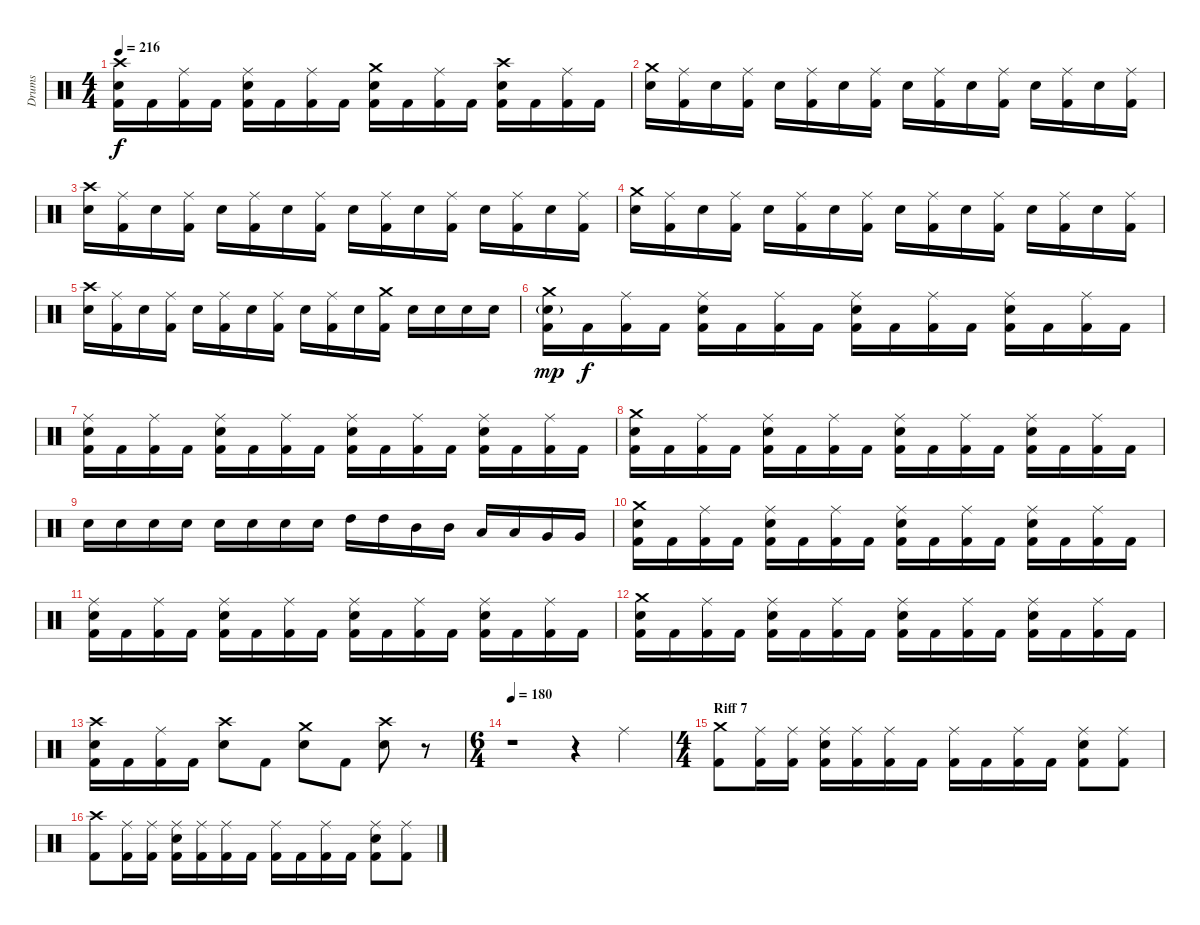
\track ("Drums" "Drums") {instrument percussion}
\staff {score}
\articulation defaults
\ts (4 4)
\tempo 216
\clef neutral
\ks c
("Crash high (hit)" "Electric Snare (hit)" "Kick (hit) 2").16{dy f} "Kick (hit) 2".16 ("Ride (middle)" "Kick (hit) 2").16 "Kick (hit) 2".16 ("Ride (middle)" "Electric Snare (hit)" "Kick (hit) 2").16 "Kick (hit) 2".16 ("Ride (middle)" "Kick (hit) 2").16 "Kick (hit) 2".16 ("Crash medium (hit)" "Electric Snare (hit)" "Kick (hit) 2").16 "Kick (hit) 2".16 ("Ride (middle)" "Kick (hit) 2").16 "Kick (hit) 2".16 ("Crash high (hit)" "Electric Snare (hit)" "Kick (hit) 2").16 "Kick (hit) 2".16 ("Ride (middle)" "Kick (hit) 2").16 "Kick (hit) 2".16 |
("Crash medium (hit)" "Electric Snare (hit)").16 ("Ride (middle)" "Kick (hit) 2").16 "Electric Snare (hit)".16 ("Ride (middle)" "Kick (hit) 2").16 "Electric Snare (hit)".16 ("Ride (middle)" "Kick (hit) 2").16 "Electric Snare (hit)".16 ("Ride (middle)" "Kick (hit) 2").16 "Electric Snare (hit)".16 ("Ride (middle)" "Kick (hit) 2").16 "Electric Snare (hit)".16 ("Ride (middle)" "Kick (hit) 2").16 "Electric Snare (hit)".16 ("Ride (middle)" "Kick (hit) 2").16 "Electric Snare (hit)".16 ("Ride (middle)" "Kick (hit) 2").16 |
("Crash high (hit)" "Electric Snare (hit)").16 ("Ride (middle)" "Kick (hit) 2").16 "Electric Snare (hit)".16 ("Ride (middle)" "Kick (hit) 2").16 "Electric Snare (hit)".16 ("Ride (middle)" "Kick (hit) 2").16 "Electric Snare (hit)".16 ("Ride (middle)" "Kick (hit) 2").16 "Electric Snare (hit)".16 ("Ride (middle)" "Kick (hit) 2").16 "Electric Snare (hit)".16 ("Ride (middle)" "Kick (hit) 2").16 "Electric Snare (hit)".16 ("Ride (middle)" "Kick (hit) 2").16 "Electric Snare (hit)".16 ("Ride (middle)" "Kick (hit) 2").16 |
("Crash medium (hit)" "Electric Snare (hit)").16 ("Ride (middle)" "Kick (hit) 2").16 "Electric Snare (hit)".16 ("Ride (middle)" "Kick (hit) 2").16 "Electric Snare (hit)".16 ("Ride (middle)" "Kick (hit) 2").16 "Electric Snare (hit)".16 ("Ride (middle)" "Kick (hit) 2").16 "Electric Snare (hit)".16 ("Ride (middle)" "Kick (hit) 2").16 "Electric Snare (hit)".16 ("Ride (middle)" "Kick (hit) 2").16 "Electric Snare (hit)".16 ("Ride (middle)" "Kick (hit) 2").16 "Electric Snare (hit)".16 ("Ride (middle)" "Kick (hit) 2").16 |
("Crash high (hit)" "Electric Snare (hit)").16 ("Ride (middle)" "Kick (hit) 2").16 "Electric Snare (hit)".16 ("Ride (middle)" "Kick (hit) 2").16 "Electric Snare (hit)".16 ("Ride (middle)" "Kick (hit) 2").16 "Electric Snare (hit)".16 ("Ride (middle)" "Kick (hit) 2").16 "Electric Snare (hit)".16 ("Ride (middle)" "Kick (hit) 2").16 "Electric Snare (hit)".16 ("Crash medium (hit)" "Kick (hit) 2").16 "Electric Snare (hit)".16 "Electric Snare (hit)".16 "Electric Snare (hit)".16 "Electric Snare (hit)".16 |
("Crash medium (hit)" "Electric Snare (hit)"{g} "Kick (hit) 2").16{dy mp} "Kick (hit) 2".16{dy f} ("Ride (middle)" "Kick (hit) 2").16 "Kick (hit) 2".16 ("Ride (middle)" "Electric Snare (hit)" "Kick (hit) 2").16 "Kick (hit) 2".16 ("Ride (middle)" "Kick (hit) 2").16 "Kick (hit) 2".16 ("Ride (middle)" "Electric Snare (hit)" "Kick (hit) 2").16 "Kick (hit) 2".16 ("Ride (middle)" "Kick (hit) 2").16 "Kick (hit) 2".16 ("Ride (middle)" "Electric Snare (hit)" "Kick (hit) 2").16 "Kick (hit) 2".16 ("Ride (middle)" "Kick (hit) 2").16 "Kick (hit) 2".16 |
("Ride (middle)" "Electric Snare (hit)" "Kick (hit) 2").16 "Kick (hit) 2".16 ("Ride (middle)" "Kick (hit) 2").16 "Kick (hit) 2".16 ("Ride (middle)" "Electric Snare (hit)" "Kick (hit) 2").16 "Kick (hit) 2".16 ("Ride (middle)" "Kick (hit) 2").16 "Kick (hit) 2".16 ("Ride (middle)" "Electric Snare (hit)" "Kick (hit) 2").16 "Kick (hit) 2".16 ("Ride (middle)" "Kick (hit) 2").16 "Kick (hit) 2".16 ("Ride (middle)" "Electric Snare (hit)" "Kick (hit) 2").16 "Kick (hit) 2".16 ("Ride (middle)" "Kick (hit) 2").16 "Kick (hit) 2".16 |
("Crash medium (hit)" "Electric Snare (hit)" "Kick (hit) 2").16 "Kick (hit) 2".16 ("Ride (middle)" "Kick (hit) 2").16 "Kick (hit) 2".16 ("Ride (middle)" "Electric Snare (hit)" "Kick (hit) 2").16 "Kick (hit) 2".16 ("Ride (middle)" "Kick (hit) 2").16 "Kick (hit) 2".16 ("Ride (middle)" "Electric Snare (hit)" "Kick (hit) 2").16 "Kick (hit) 2".16 ("Ride (middle)" "Kick (hit) 2").16 "Kick (hit) 2".16 ("Ride (middle)" "Electric Snare (hit)" "Kick (hit) 2").16 "Kick (hit) 2".16 ("Ride (middle)" "Kick (hit) 2").16 "Kick (hit) 2".16 |
"Electric Snare (hit)".16 "Electric Snare (hit)".16 "Electric Snare (hit)".16 "Electric Snare (hit)".16 "Electric Snare (hit)".16 "Electric Snare (hit)".16 "Electric Snare (hit)".16 "Electric Snare (hit)".16 "High Tom (hit)".16 "High Tom (hit)".16 "Mid Tom (hit)".16 "Mid Tom (hit)".16 "Low Tom (hit)".16 "Low Tom (hit)".16 "Very Low Tom (hit)".16 "Very Low Tom (hit)".16 |
("Crash medium (hit)" "Electric Snare (hit)" "Kick (hit) 2").16 "Kick (hit) 2".16 ("Ride (middle)" "Kick (hit) 2").16 "Kick (hit) 2".16 ("Ride (middle)" "Electric Snare (hit)" "Kick (hit) 2").16 "Kick (hit) 2".16 ("Ride (middle)" "Kick (hit) 2").16 "Kick (hit) 2".16 ("Ride (middle)" "Electric Snare (hit)" "Kick (hit) 2").16 "Kick (hit) 2".16 ("Ride (middle)" "Kick (hit) 2").16 "Kick (hit) 2".16 ("Ride (middle)" "Electric Snare (hit)" "Kick (hit) 2").16 "Kick (hit) 2".16 ("Ride (middle)" "Kick (hit) 2").16 "Kick (hit) 2".16 |
("Ride (middle)" "Electric Snare (hit)" "Kick (hit) 2").16 "Kick (hit) 2".16 ("Ride (middle)" "Kick (hit) 2").16 "Kick (hit) 2".16 ("Ride (middle)" "Electric Snare (hit)" "Kick (hit) 2").16 "Kick (hit) 2".16 ("Ride (middle)" "Kick (hit) 2").16 "Kick (hit) 2".16 ("Ride (middle)" "Electric Snare (hit)" "Kick (hit) 2").16 "Kick (hit) 2".16 ("Ride (middle)" "Kick (hit) 2").16 "Kick (hit) 2".16 ("Ride (middle)" "Electric Snare (hit)" "Kick (hit) 2").16 "Kick (hit) 2".16 ("Ride (middle)" "Kick (hit) 2").16 "Kick (hit) 2".16 |
("Crash medium (hit)" "Electric Snare (hit)" "Kick (hit) 2").16 "Kick (hit) 2".16 ("Ride (middle)" "Kick (hit) 2").16 "Kick (hit) 2".16 ("Ride (middle)" "Electric Snare (hit)" "Kick (hit) 2").16 "Kick (hit) 2".16 ("Ride (middle)" "Kick (hit) 2").16 "Kick (hit) 2".16 ("Ride (middle)" "Electric Snare (hit)" "Kick (hit) 2").16 "Kick (hit) 2".16 ("Ride (middle)" "Kick (hit) 2").16 "Kick (hit) 2".16 ("Ride (middle)" "Electric Snare (hit)" "Kick (hit) 2").16 "Kick (hit) 2".16 ("Ride (middle)" "Kick (hit) 2").16 "Kick (hit) 2".16 |
("Crash high (hit)" "Electric Snare (hit)" "Kick (hit) 2").16 "Kick (hit) 2".16 ("Ride (middle)" "Kick (hit) 2").16 "Kick (hit) 2".16 ("Crash high (hit)" "Electric Snare (hit)").8 "Kick (hit) 2".8 ("Crash medium (hit)" "Electric Snare (hit)").8 "Kick (hit) 2".8 ("Crash high (hit)" "Electric Snare (hit)").8 r.8 |
\ts (6 4)
\tempo 180
r.1 r.4 "Ride (middle)".4 |
\ts (4 4)
\section ("" "Riff 7")
("Crash medium (hit)" "Kick (hit) 2").8 ("Ride (middle)" "Kick (hit) 2").16 ("Ride (middle)" "Kick (hit) 2").16 ("Ride (middle)" "Electric Snare (hit)" "Kick (hit) 2").16 ("Ride (middle)" "Kick (hit) 2").16 ("Ride (middle)" "Kick (hit) 2").16 "Kick (hit) 2".16 ("Ride (middle)" "Kick (hit) 2").16 "Kick (hit) 2".16 ("Ride (middle)" "Kick (hit) 2").16 "Kick (hit) 2".16 ("Ride (middle)" "Electric Snare (hit)" "Kick (hit) 2").8 ("Ride (middle)" "Kick (hit) 2").8 |
("Crash high (hit)" "Kick (hit) 2").8 ("Ride (middle)" "Kick (hit) 2").16 ("Ride (middle)" "Kick (hit) 2").16 ("Ride (middle)" "Electric Snare (hit)" "Kick (hit) 2").16 ("Ride (middle)" "Kick (hit) 2").16 ("Ride (middle)" "Kick (hit) 2").16 "Kick (hit) 2".16 ("Ride (middle)" "Kick (hit) 2").16 "Kick (hit) 2".16 ("Ride (middle)" "Kick (hit) 2").16 "Kick (hit) 2".16 ("Ride (middle)" "Electric Snare (hit)" "Kick (hit) 2").8 ("Ride (middle)" "Kick (hit) 2").8
